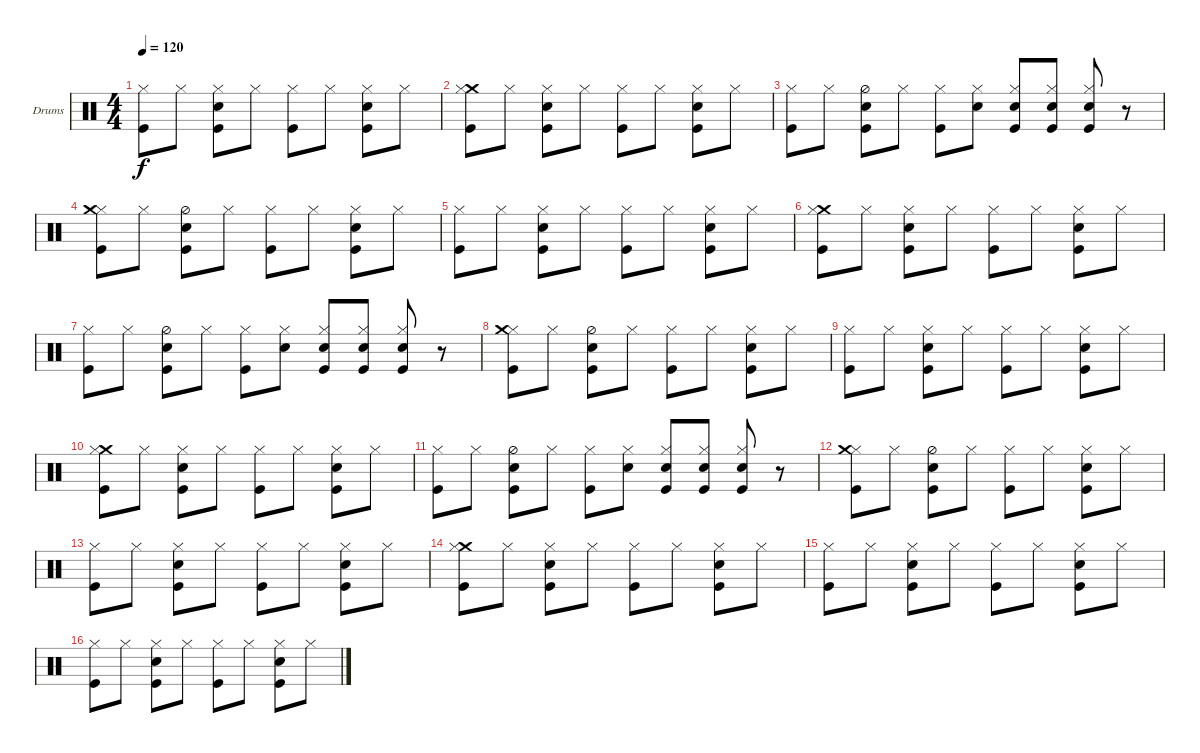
\bracketExtendMode nobrackets
\firstSystemTrackNameOrientation horizontal
\otherSystemsTrackNameOrientation horizontal
\track ("Drumkit" "Drums") {instrument percussion}
\staff {score}
\articulation defaults
\ts (4 4)
\tempo 120
\clef neutral
\ks c
("Kick (hit)" "Hi-Hat (closed)").8{dy f} "Hi-Hat (closed)".8 ("Kick (hit)" "Snare (hit) 2" "Hi-Hat (closed)").8 "Hi-Hat (closed)".8 ("Kick (hit)" "Hi-Hat (closed)").8 "Hi-Hat (closed)".8 ("Kick (hit)" "Snare (hit) 2" "Hi-Hat (closed)").8 "Hi-Hat (closed)".8 |
("Kick (hit)" "Crash medium (hit)" "Hi-Hat (closed)").8 "Hi-Hat (closed)".8 ("Kick (hit)" "Snare (hit) 2" "Hi-Hat (closed)").8 "Hi-Hat (closed)".8 ("Kick (hit)" "Hi-Hat (closed)").8 "Hi-Hat (closed)".8 ("Kick (hit)" "Snare (hit) 2" "Hi-Hat (closed)").8 "Hi-Hat (closed)".8 |
("Kick (hit)" "Hi-Hat (closed)").8 "Hi-Hat (closed)".8 ("Snare (hit) 2" "Hi-Hat (half)" "Kick (hit)").8 "Hi-Hat (closed)".8 ("Kick (hit)" "Hi-Hat (closed)").8 ("Hi-Hat (closed)" "Snare (hit) 2").8 ("Kick (hit)" "Snare (hit) 2" "Hi-Hat (closed)").8 ("Hi-Hat (closed)" "Snare (hit) 2" "Kick (hit)").8 ("Kick (hit)" "Hi-Hat (closed)" "Snare (hit) 2").8 r.8 |
("Kick (hit)" "Hi-Hat (closed)" "Crash medium (hit)").8 "Hi-Hat (closed)".8 ("Kick (hit)" "Hi-Hat (half)" "Snare (hit) 2").8 "Hi-Hat (closed)".8 ("Kick (hit)" "Hi-Hat (closed)").8 "Hi-Hat (closed)".8 ("Kick (hit)" "Snare (hit) 2" "Hi-Hat (closed)").8 "Hi-Hat (closed)".8 |
("Kick (hit)" "Hi-Hat (closed)").8 "Hi-Hat (closed)".8 ("Kick (hit)" "Snare (hit) 2" "Hi-Hat (closed)").8 "Hi-Hat (closed)".8 ("Kick (hit)" "Hi-Hat (closed)").8 "Hi-Hat (closed)".8 ("Kick (hit)" "Snare (hit) 2" "Hi-Hat (closed)").8 "Hi-Hat (closed)".8 |
("Kick (hit)" "Crash medium (hit)" "Hi-Hat (closed)").8 "Hi-Hat (closed)".8 ("Kick (hit)" "Snare (hit) 2" "Hi-Hat (closed)").8 "Hi-Hat (closed)".8 ("Kick (hit)" "Hi-Hat (closed)").8 "Hi-Hat (closed)".8 ("Kick (hit)" "Snare (hit) 2" "Hi-Hat (closed)").8 "Hi-Hat (closed)".8 |
("Kick (hit)" "Hi-Hat (closed)").8 "Hi-Hat (closed)".8 ("Snare (hit) 2" "Hi-Hat (half)" "Kick (hit)").8 "Hi-Hat (closed)".8 ("Kick (hit)" "Hi-Hat (closed)").8 ("Hi-Hat (closed)" "Snare (hit) 2").8 ("Kick (hit)" "Snare (hit) 2" "Hi-Hat (closed)").8 ("Hi-Hat (closed)" "Snare (hit) 2" "Kick (hit)").8 ("Kick (hit)" "Hi-Hat (closed)" "Snare (hit) 2").8 r.8 |
("Kick (hit)" "Hi-Hat (closed)" "Crash medium (hit)").8 "Hi-Hat (closed)".8 ("Kick (hit)" "Hi-Hat (half)" "Snare (hit) 2").8 "Hi-Hat (closed)".8 ("Kick (hit)" "Hi-Hat (closed)").8 "Hi-Hat (closed)".8 ("Kick (hit)" "Snare (hit) 2" "Hi-Hat (closed)").8 "Hi-Hat (closed)".8 |
("Kick (hit)" "Hi-Hat (closed)").8 "Hi-Hat (closed)".8 ("Kick (hit)" "Snare (hit) 2" "Hi-Hat (closed)").8 "Hi-Hat (closed)".8 ("Kick (hit)" "Hi-Hat (closed)").8 "Hi-Hat (closed)".8 ("Kick (hit)" "Snare (hit) 2" "Hi-Hat (closed)").8 "Hi-Hat (closed)".8 |
("Kick (hit)" "Crash medium (hit)" "Hi-Hat (closed)").8 "Hi-Hat (closed)".8 ("Kick (hit)" "Snare (hit) 2" "Hi-Hat (closed)").8 "Hi-Hat (closed)".8 ("Kick (hit)" "Hi-Hat (closed)").8 "Hi-Hat (closed)".8 ("Kick (hit)" "Snare (hit) 2" "Hi-Hat (closed)").8 "Hi-Hat (closed)".8 |
("Kick (hit)" "Hi-Hat (closed)").8 "Hi-Hat (closed)".8 ("Snare (hit) 2" "Hi-Hat (half)" "Kick (hit)").8 "Hi-Hat (closed)".8 ("Kick (hit)" "Hi-Hat (closed)").8 ("Hi-Hat (closed)" "Snare (hit) 2").8 ("Kick (hit)" "Snare (hit) 2" "Hi-Hat (closed)").8 ("Hi-Hat (closed)" "Snare (hit) 2" "Kick (hit)").8 ("Kick (hit)" "Hi-Hat (closed)" "Snare (hit) 2").8 r.8 |
("Kick (hit)" "Hi-Hat (closed)" "Crash medium (hit)").8 "Hi-Hat (closed)".8 ("Kick (hit)" "Hi-Hat (half)" "Snare (hit) 2").8 "Hi-Hat (closed)".8 ("Kick (hit)" "Hi-Hat (closed)").8 "Hi-Hat (closed)".8 ("Kick (hit)" "Snare (hit) 2" "Hi-Hat (closed)").8 "Hi-Hat (closed)".8 |
("Kick (hit)" "Hi-Hat (closed)").8 "Hi-Hat (closed)".8 ("Kick (hit)" "Snare (hit) 2" "Hi-Hat (closed)").8 "Hi-Hat (closed)".8 ("Kick (hit)" "Hi-Hat (closed)").8 "Hi-Hat (closed)".8 ("Kick (hit)" "Snare (hit) 2" "Hi-Hat (closed)").8 "Hi-Hat (closed)".8 |
("Kick (hit)" "Crash medium (hit)" "Hi-Hat (closed)").8 "Hi-Hat (closed)".8 ("Kick (hit)" "Snare (hit) 2" "Hi-Hat (closed)").8 "Hi-Hat (closed)".8 ("Kick (hit)" "Hi-Hat (closed)").8 "Hi-Hat (closed)".8 ("Kick (hit)" "Snare (hit) 2" "Hi-Hat (closed)").8 "Hi-Hat (closed)".8 |
("Kick (hit)" "Hi-Hat (closed)").8 "Hi-Hat (closed)".8 ("Kick (hit)" "Snare (hit) 2" "Hi-Hat (closed)").8 "Hi-Hat (closed)".8 ("Kick (hit)" "Hi-Hat (closed)").8 "Hi-Hat (closed)".8 ("Kick (hit)" "Snare (hit) 2" "Hi-Hat (closed)").8 "Hi-Hat (closed)".8 |
("Kick (hit)" "Hi-Hat (closed)").8 "Hi-Hat (closed)".8 ("Kick (hit)" "Snare (hit) 2" "Hi-Hat (closed)").8 "Hi-Hat (closed)".8 ("Kick (hit)" "Hi-Hat (closed)").8 "Hi-Hat (closed)".8 ("Kick (hit)" "Snare (hit) 2" "Hi-Hat (closed)").8 "Hi-Hat (closed)".8
